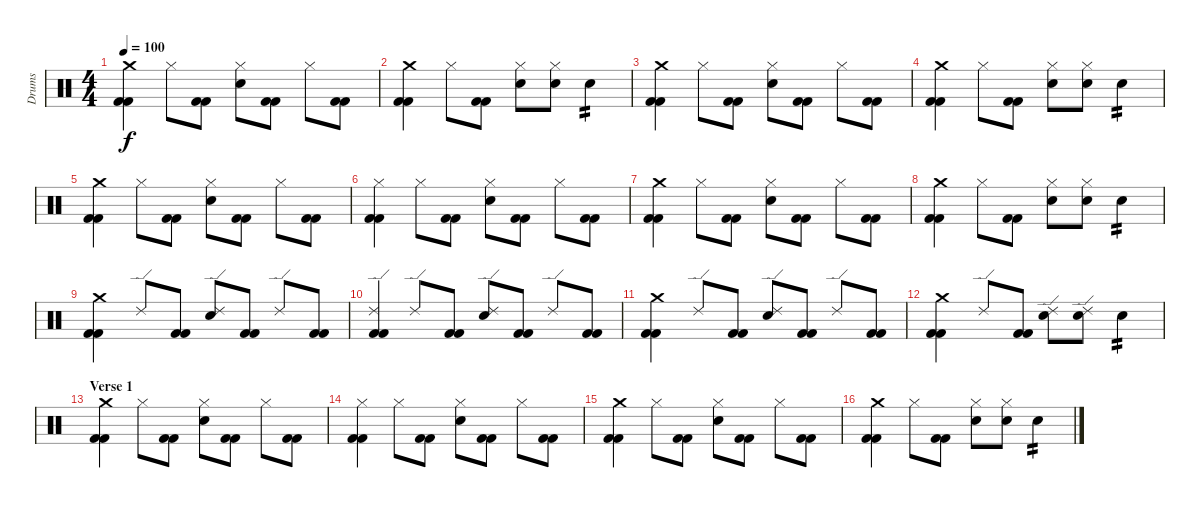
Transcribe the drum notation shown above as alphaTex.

\track ("Drums" "Drums") {instrument percussion}
\staff {score}
\articulation defaults
\ts (4 4)
\tempo 100
\clef neutral
\ks c
("Kick (hit) 2" "Kick (hit) 2" "Crash medium (hit)").4{dy f} "Hi-Hat (closed)".8 ("Kick (hit) 2" "Kick (hit) 2").8 ("Electric Snare (hit)" "Hi-Hat (closed)").8 ("Kick (hit) 2" "Kick (hit) 2").8 "Hi-Hat (closed)".8 ("Kick (hit) 2" "Kick (hit) 2").8 |
("Kick (hit) 2" "Kick (hit) 2" "Crash medium (hit)").4 "Hi-Hat (closed)".8 ("Kick (hit) 2" "Kick (hit) 2").8 ("Electric Snare (hit)" "Hi-Hat (closed)").8 ("Hi-Hat (closed)" "Electric Snare (hit)").8 "Electric Snare (hit)".4{tp 2} |
("Kick (hit) 2" "Kick (hit) 2" "Crash medium (hit)").4 "Hi-Hat (closed)".8 ("Kick (hit) 2" "Kick (hit) 2").8 ("Electric Snare (hit)" "Hi-Hat (closed)").8 ("Kick (hit) 2" "Kick (hit) 2").8 "Hi-Hat (closed)".8 ("Kick (hit) 2" "Kick (hit) 2").8 |
("Kick (hit) 2" "Kick (hit) 2" "Crash medium (hit)").4 "Hi-Hat (closed)".8 ("Kick (hit) 2" "Kick (hit) 2").8 ("Electric Snare (hit)" "Hi-Hat (closed)").8 ("Hi-Hat (closed)" "Electric Snare (hit)").8 "Electric Snare (hit)".4{tp 2} |
("Kick (hit) 2" "Kick (hit) 2" "Crash medium (hit)").4 "Hi-Hat (closed)".8 ("Kick (hit) 2" "Kick (hit) 2").8 ("Electric Snare (hit)" "Hi-Hat (closed)").8 ("Kick (hit) 2" "Kick (hit) 2").8 "Hi-Hat (closed)".8 ("Kick (hit) 2" "Kick (hit) 2").8 |
("Kick (hit) 2" "Kick (hit) 2" "Hi-Hat (closed)").4 "Hi-Hat (closed)".8 ("Kick (hit) 2" "Kick (hit) 2").8 ("Electric Snare (hit)" "Hi-Hat (closed)").8 ("Kick (hit) 2" "Kick (hit) 2").8 "Hi-Hat (closed)".8 ("Kick (hit) 2" "Kick (hit) 2").8 |
("Kick (hit) 2" "Kick (hit) 2" "Crash medium (hit)").4 "Hi-Hat (closed)".8 ("Kick (hit) 2" "Kick (hit) 2").8 ("Electric Snare (hit)" "Hi-Hat (closed)").8 ("Kick (hit) 2" "Kick (hit) 2").8 "Hi-Hat (closed)".8 ("Kick (hit) 2" "Kick (hit) 2").8 |
("Kick (hit) 2" "Kick (hit) 2" "Crash medium (hit)").4 "Hi-Hat (closed)".8 ("Kick (hit) 2" "Kick (hit) 2").8 ("Electric Snare (hit)" "Hi-Hat (closed)").8 ("Hi-Hat (closed)" "Electric Snare (hit)").8 "Electric Snare (hit)".4{tp 2} |
("Kick (hit) 2" "Kick (hit) 2" "Crash medium (hit)").4 "Ride (edge) 2".8 ("Kick (hit) 2" "Kick (hit) 2").8 ("Electric Snare (hit)" "Ride (edge) 2").8 ("Kick (hit) 2" "Kick (hit) 2").8 "Ride (edge) 2".8 ("Kick (hit) 2" "Kick (hit) 2").8 |
("Kick (hit) 2" "Kick (hit) 2" "Ride (edge) 2").4 "Ride (edge) 2".8 ("Kick (hit) 2" "Kick (hit) 2").8 ("Electric Snare (hit)" "Ride (edge) 2").8 ("Kick (hit) 2" "Kick (hit) 2").8 "Ride (edge) 2".8 ("Kick (hit) 2" "Kick (hit) 2").8 |
("Kick (hit) 2" "Kick (hit) 2" "Crash medium (hit)").4 "Ride (edge) 2".8 ("Kick (hit) 2" "Kick (hit) 2").8 ("Electric Snare (hit)" "Ride (edge) 2").8 ("Kick (hit) 2" "Kick (hit) 2").8 "Ride (edge) 2".8 ("Kick (hit) 2" "Kick (hit) 2").8 |
("Kick (hit) 2" "Kick (hit) 2" "Crash medium (hit)").4 "Ride (edge) 2".8 ("Kick (hit) 2" "Kick (hit) 2").8 ("Electric Snare (hit)" "Ride (edge) 2").8 ("Ride (edge) 2" "Electric Snare (hit)").8 "Electric Snare (hit)".4{tp 2} |
\section ("" "Verse 1")
("Kick (hit) 2" "Kick (hit) 2" "Crash medium (hit)").4 "Hi-Hat (closed)".8 ("Kick (hit) 2" "Kick (hit) 2").8 ("Electric Snare (hit)" "Hi-Hat (closed)").8 ("Kick (hit) 2" "Kick (hit) 2").8 "Hi-Hat (closed)".8 ("Kick (hit) 2" "Kick (hit) 2").8 |
("Kick (hit) 2" "Kick (hit) 2" "Hi-Hat (closed)").4 "Hi-Hat (closed)".8 ("Kick (hit) 2" "Kick (hit) 2").8 ("Electric Snare (hit)" "Hi-Hat (closed)").8 ("Kick (hit) 2" "Kick (hit) 2").8 "Hi-Hat (closed)".8 ("Kick (hit) 2" "Kick (hit) 2").8 |
("Kick (hit) 2" "Kick (hit) 2" "Crash medium (hit)").4 "Hi-Hat (closed)".8 ("Kick (hit) 2" "Kick (hit) 2").8 ("Electric Snare (hit)" "Hi-Hat (closed)").8 ("Kick (hit) 2" "Kick (hit) 2").8 "Hi-Hat (closed)".8 ("Kick (hit) 2" "Kick (hit) 2").8 |
("Kick (hit) 2" "Kick (hit) 2" "Crash medium (hit)").4 "Hi-Hat (closed)".8 ("Kick (hit) 2" "Kick (hit) 2").8 ("Electric Snare (hit)" "Hi-Hat (closed)").8 ("Hi-Hat (closed)" "Electric Snare (hit)").8 "Electric Snare (hit)".4{tp 2}
